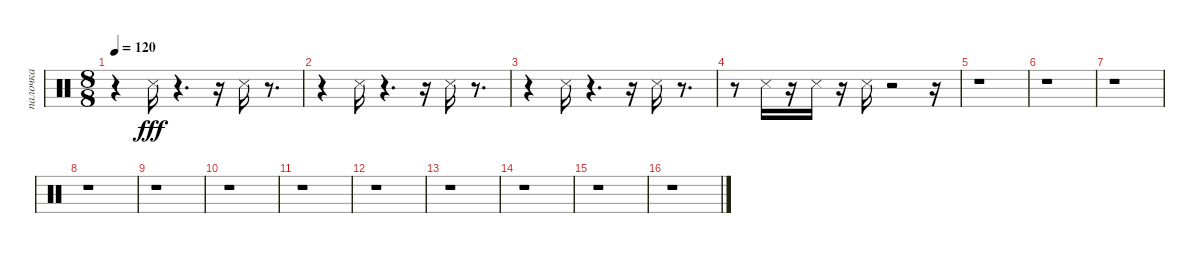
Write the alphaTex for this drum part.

\track ("палочка" "палочка") {instrument percussion}
\staff {score}
\articulation defaults
\ts (8 8)
\tempo 120
\clef neutral
\ks c
r.4{dy fff} "Snare (side stick) 3".16 r.4{d} r.16 "Snare (side stick) 3".16 r.8{d} |
r.4 "Snare (side stick) 3".16 r.4{d} r.16 "Snare (side stick) 3".16 r.8{d} |
r.4 "Snare (side stick) 3".16 r.4{d} r.16 "Snare (side stick) 3".16 r.8{d} |
r.8 "Snare (side stick) 3".16 r.16 "Snare (side stick) 3".16 r.16 "Snare (side stick) 3".16 r.2 r.16 |
r.1 |
r.1 |
r.1 |
r.1 |
r.1 |
r.1 |
r.1 |
r.1 |
r.1 |
r.1 |
r.1 |
r.1
